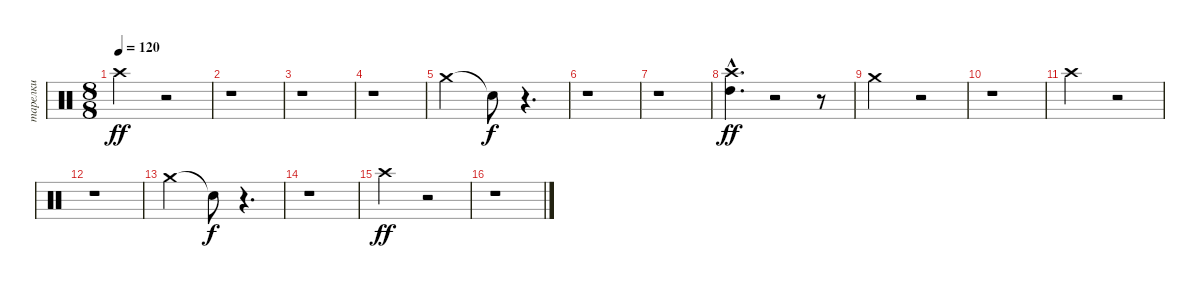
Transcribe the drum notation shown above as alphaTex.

\track ("тарелки" "тарелки") {instrument percussion}
\staff {score}
\articulation defaults
\ts (8 8)
\tempo 120
\clef neutral
\ks c "Crash high (hit)".2{dy ff}
r.2 |
r.1 |
r.1 |
r.1 |
"Crash medium (hit)".2 "Snare (hit)"{t}.8{dy f} r.4{d} |
r.1 |
r.1 |
("Crash high (hit)"{hac} "High Tom (hit)"{hac}).4{d dy ff} r.2 r.8 |
"Crash medium (hit)".2 r.2 |
r.1 |
"Crash high (hit)".2 r.2 |
r.1 |
"Crash medium (hit)".2 "Snare (hit)"{t}.8{dy f} r.4{d} |
r.1 |
"Crash high (hit)".2{dy ff} r.2 |
r.1
